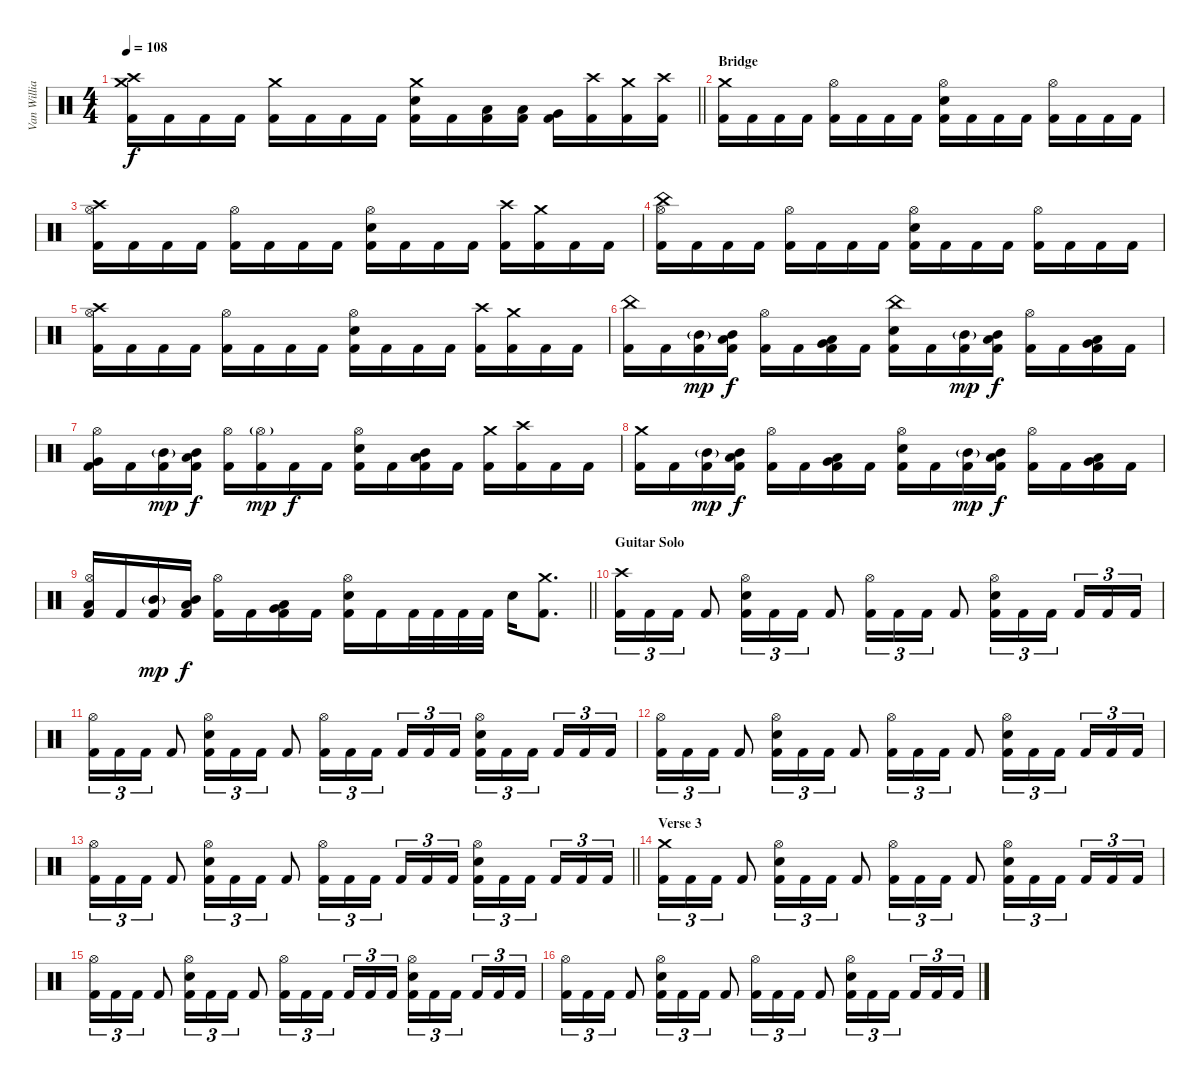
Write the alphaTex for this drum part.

\track ("Van Williams" "Van Willia") {instrument percussion}
\staff {score}
\articulation defaults
\ts (4 4)
\tempo 108
\clef neutral
\barLineRight lightlight
\ks c
("Crash high (hit)" "Crash medium (hit)" "Kick (hit) 2").16{dy f} "Kick (hit) 2".16 "Kick (hit) 2".16 "Kick (hit) 2".16 ("Crash medium (hit)" "Kick (hit) 2").16 "Kick (hit) 2".16 "Kick (hit) 2".16 "Kick (hit) 2".16 ("Crash medium (hit)" "Snare (hit) 2" "Kick (hit) 2").16 "Kick (hit) 2".16 ("Low Tom (hit)" "Kick (hit) 2").16 ("Low Tom (hit)" "Kick (hit) 2").16 ("Very Low Tom (hit)" "Kick (hit) 2").16 ("Crash high (hit)" "Kick (hit) 2").16 ("Crash medium (hit)" "Kick (hit) 2").16 ("Crash high (hit)" "Kick (hit) 2").16 |
\section ("" "Bridge")
("Crash medium (hit)" "Kick (hit) 2").16 "Kick (hit) 2".16 "Kick (hit) 2".16 "Kick (hit) 2".16 ("Hi-Hat (open)" "Kick (hit) 2").16 "Kick (hit) 2".16 "Kick (hit) 2".16 "Kick (hit) 2".16 ("Hi-Hat (open)" "Snare (hit) 2" "Kick (hit) 2").16 "Kick (hit) 2".16 "Kick (hit) 2".16 "Kick (hit) 2".16 ("Hi-Hat (open)" "Kick (hit) 2").16 "Kick (hit) 2".16 "Kick (hit) 2".16 "Kick (hit) 2".16 |
("Crash high (hit)" "Hi-Hat (open)" "Kick (hit) 2").16 "Kick (hit) 2".16 "Kick (hit) 2".16 "Kick (hit) 2".16 ("Hi-Hat (open)" "Kick (hit) 2").16 "Kick (hit) 2".16 "Kick (hit) 2".16 "Kick (hit) 2".16 ("Hi-Hat (open)" "Snare (hit) 2" "Kick (hit) 2").16 "Kick (hit) 2".16 "Kick (hit) 2".16 "Kick (hit) 2".16 ("Crash high (hit)" "Kick (hit) 2").16 ("Crash medium (hit)" "Kick (hit) 2").16 "Kick (hit) 2".16 "Kick (hit) 2".16 |
("China (hit)" "Hi-Hat (open)" "Kick (hit) 2").16 "Kick (hit) 2".16 "Kick (hit) 2".16 "Kick (hit) 2".16 ("Hi-Hat (open)" "Kick (hit) 2").16 "Kick (hit) 2".16 "Kick (hit) 2".16 "Kick (hit) 2".16 ("Hi-Hat (open)" "Snare (hit) 2" "Kick (hit) 2").16 "Kick (hit) 2".16 "Kick (hit) 2".16 "Kick (hit) 2".16 ("Hi-Hat (open)" "Kick (hit) 2").16 "Kick (hit) 2".16 "Kick (hit) 2".16 "Kick (hit) 2".16 |
("Crash high (hit)" "Hi-Hat (open)" "Kick (hit) 2").16 "Kick (hit) 2".16 "Kick (hit) 2".16 "Kick (hit) 2".16 ("Hi-Hat (open)" "Kick (hit) 2").16 "Kick (hit) 2".16 "Kick (hit) 2".16 "Kick (hit) 2".16 ("Hi-Hat (open)" "Snare (hit) 2" "Kick (hit) 2").16 "Kick (hit) 2".16 "Kick (hit) 2".16 "Kick (hit) 2".16 ("Crash high (hit)" "Kick (hit) 2").16 ("Crash medium (hit)" "Kick (hit) 2").16 "Kick (hit) 2".16 "Kick (hit) 2".16 |
("China (hit)" "Kick (hit) 2").16 "Kick (hit) 2".16 ("Mid Tom (hit)"{g} "Kick (hit) 2").16{dy mp} ("Mid Tom (hit)" "Low Tom (hit)" "Kick (hit) 2").16{dy f} ("Hi-Hat (open)" "Kick (hit) 2").16 "Kick (hit) 2".16 ("Low Tom (hit)" "Very Low Tom (hit)" "Kick (hit) 2").16 "Kick (hit) 2".16 ("China (hit)" "Snare (hit) 2" "Kick (hit) 2").16 "Kick (hit) 2".16 ("Mid Tom (hit)"{g} "Kick (hit) 2").16{dy mp} ("Mid Tom (hit)" "Low Tom (hit)" "Kick (hit) 2").16{dy f} ("Hi-Hat (open)" "Kick (hit) 2").16 "Kick (hit) 2".16 ("Low Tom (hit)" "Very Low Tom (hit)" "Kick (hit) 2").16 "Kick (hit) 2".16 |
("Hi-Hat (open)" "Very Low Tom (hit)" "Kick (hit) 2").16 "Kick (hit) 2".16 ("Mid Tom (hit)"{g} "Kick (hit) 2").16{dy mp} ("Mid Tom (hit)" "Low Tom (hit)" "Kick (hit) 2").16{dy f} ("Hi-Hat (open)" "Kick (hit) 2").16 ("Hi-Hat (open)"{g} "Kick (hit) 2").16{dy mp} "Kick (hit) 2".16{dy f} "Kick (hit) 2".16 ("Hi-Hat (open)" "Snare (hit) 2" "Kick (hit) 2").16 "Kick (hit) 2".16 ("Mid Tom (hit)" "Low Tom (hit)" "Kick (hit) 2").16 "Kick (hit) 2".16 ("Crash medium (hit)" "Kick (hit) 2").16 ("Crash high (hit)" "Kick (hit) 2").16 "Kick (hit) 2".16 "Kick (hit) 2".16 |
("Crash medium (hit)" "Kick (hit) 2").16 "Kick (hit) 2".16 ("Mid Tom (hit)"{g} "Kick (hit) 2").16{dy mp} ("Mid Tom (hit)" "Low Tom (hit)" "Kick (hit) 2").16{dy f} ("Hi-Hat (open)" "Kick (hit) 2").16 "Kick (hit) 2".16 ("Low Tom (hit)" "Very Low Tom (hit)" "Kick (hit) 2").16 "Kick (hit) 2".16 ("Hi-Hat (open)" "Snare (hit) 2" "Kick (hit) 2").16 "Kick (hit) 2".16 ("Mid Tom (hit)"{g} "Kick (hit) 2").16{dy mp} ("Mid Tom (hit)" "Low Tom (hit)" "Kick (hit) 2").16{dy f} ("Hi-Hat (open)" "Kick (hit) 2").16 "Kick (hit) 2".16 ("Low Tom (hit)" "Very Low Tom (hit)" "Kick (hit) 2").16 "Kick (hit) 2".16 |
\barLineRight lightlight
("Hi-Hat (open)" "Low Floor Tom (hit)" "Kick (hit) 2").16 "Kick (hit) 2".16 ("Mid Tom (hit)"{g} "Kick (hit) 2").16{dy mp} ("Mid Tom (hit)" "Low Tom (hit)" "Kick (hit) 2").16{dy f} ("Hi-Hat (open)" "Kick (hit) 2").16 "Kick (hit) 2".16 ("Low Tom (hit)" "Very Low Tom (hit)" "Kick (hit) 2").16 "Kick (hit) 2".16 ("Hi-Hat (open)" "Snare (hit) 2" "Kick (hit) 2").16 "Kick (hit) 2".16 "Kick (hit) 2".32 "Kick (hit) 2".32 "Kick (hit) 2".32 "Kick (hit) 2".32 "Snare (hit) 2".16 ("Crash medium (hit)" "Kick (hit) 2").8{d} |
\section ("" "Guitar Solo")
("Crash high (hit)" "Kick (hit) 2").16{tu (3 2)} "Kick (hit) 2".16{tu (3 2)} "Kick (hit) 2".16{tu (3 2)} "Kick (hit) 2".8 ("Hi-Hat (open)" "Snare (hit) 2" "Kick (hit) 2").16{tu (3 2)} "Kick (hit) 2".16{tu (3 2)} "Kick (hit) 2".16{tu (3 2)} "Kick (hit) 2".8 ("Hi-Hat (open)" "Kick (hit) 2").16{tu (3 2)} "Kick (hit) 2".16{tu (3 2)} "Kick (hit) 2".16{tu (3 2)} "Kick (hit) 2".8 ("Hi-Hat (open)" "Snare (hit) 2" "Kick (hit) 2").16{tu (3 2)} "Kick (hit) 2".16{tu (3 2)} "Kick (hit) 2".16{tu (3 2) beam splitsecondary} "Kick (hit) 2".16{tu (3 2)} "Kick (hit) 2".16{tu (3 2)} "Kick (hit) 2".16{tu (3 2)} |
("Hi-Hat (open)" "Kick (hit) 2").16{tu (3 2)} "Kick (hit) 2".16{tu (3 2)} "Kick (hit) 2".16{tu (3 2)} "Kick (hit) 2".8 ("Hi-Hat (open)" "Snare (hit) 2" "Kick (hit) 2").16{tu (3 2)} "Kick (hit) 2".16{tu (3 2)} "Kick (hit) 2".16{tu (3 2)} "Kick (hit) 2".8 ("Hi-Hat (open)" "Kick (hit) 2").16{tu (3 2)} "Kick (hit) 2".16{tu (3 2)} "Kick (hit) 2".16{tu (3 2) beam splitsecondary} "Kick (hit) 2".16{tu (3 2)} "Kick (hit) 2".16{tu (3 2)} "Kick (hit) 2".16{tu (3 2)} ("Hi-Hat (open)" "Snare (hit) 2" "Kick (hit) 2").16{tu (3 2)} "Kick (hit) 2".16{tu (3 2)} "Kick (hit) 2".16{tu (3 2) beam splitsecondary} "Kick (hit) 2".16{tu (3 2)} "Kick (hit) 2".16{tu (3 2)} "Kick (hit) 2".16{tu (3 2)} |
("Hi-Hat (open)" "Kick (hit) 2").16{tu (3 2)} "Kick (hit) 2".16{tu (3 2)} "Kick (hit) 2".16{tu (3 2)} "Kick (hit) 2".8 ("Hi-Hat (open)" "Snare (hit) 2" "Kick (hit) 2").16{tu (3 2)} "Kick (hit) 2".16{tu (3 2)} "Kick (hit) 2".16{tu (3 2)} "Kick (hit) 2".8 ("Hi-Hat (open)" "Kick (hit) 2").16{tu (3 2)} "Kick (hit) 2".16{tu (3 2)} "Kick (hit) 2".16{tu (3 2)} "Kick (hit) 2".8 ("Hi-Hat (open)" "Snare (hit) 2" "Kick (hit) 2").16{tu (3 2)} "Kick (hit) 2".16{tu (3 2)} "Kick (hit) 2".16{tu (3 2) beam splitsecondary} "Kick (hit) 2".16{tu (3 2)} "Kick (hit) 2".16{tu (3 2)} "Kick (hit) 2".16{tu (3 2)} |
\barLineRight lightlight
("Hi-Hat (open)" "Kick (hit) 2").16{tu (3 2)} "Kick (hit) 2".16{tu (3 2)} "Kick (hit) 2".16{tu (3 2)} "Kick (hit) 2".8 ("Hi-Hat (open)" "Snare (hit) 2" "Kick (hit) 2").16{tu (3 2)} "Kick (hit) 2".16{tu (3 2)} "Kick (hit) 2".16{tu (3 2)} "Kick (hit) 2".8 ("Hi-Hat (open)" "Kick (hit) 2").16{tu (3 2)} "Kick (hit) 2".16{tu (3 2)} "Kick (hit) 2".16{tu (3 2) beam splitsecondary} "Kick (hit) 2".16{tu (3 2)} "Kick (hit) 2".16{tu (3 2)} "Kick (hit) 2".16{tu (3 2)} ("Hi-Hat (open)" "Snare (hit) 2" "Kick (hit) 2").16{tu (3 2)} "Kick (hit) 2".16{tu (3 2)} "Kick (hit) 2".16{tu (3 2) beam splitsecondary} "Kick (hit) 2".16{tu (3 2)} "Kick (hit) 2".16{tu (3 2)} "Kick (hit) 2".16{tu (3 2)} |
\section ("" "Verse 3")
("Crash medium (hit)" "Kick (hit) 2").16{tu (3 2)} "Kick (hit) 2".16{tu (3 2)} "Kick (hit) 2".16{tu (3 2)} "Kick (hit) 2".8 ("Hi-Hat (open)" "Snare (hit) 2" "Kick (hit) 2").16{tu (3 2)} "Kick (hit) 2".16{tu (3 2)} "Kick (hit) 2".16{tu (3 2)} "Kick (hit) 2".8 ("Hi-Hat (open)" "Kick (hit) 2").16{tu (3 2)} "Kick (hit) 2".16{tu (3 2)} "Kick (hit) 2".16{tu (3 2)} "Kick (hit) 2".8 ("Hi-Hat (open)" "Snare (hit) 2" "Kick (hit) 2").16{tu (3 2)} "Kick (hit) 2".16{tu (3 2)} "Kick (hit) 2".16{tu (3 2) beam splitsecondary} "Kick (hit) 2".16{tu (3 2)} "Kick (hit) 2".16{tu (3 2)} "Kick (hit) 2".16{tu (3 2)} |
("Hi-Hat (open)" "Kick (hit) 2").16{tu (3 2)} "Kick (hit) 2".16{tu (3 2)} "Kick (hit) 2".16{tu (3 2)} "Kick (hit) 2".8 ("Hi-Hat (open)" "Snare (hit) 2" "Kick (hit) 2").16{tu (3 2)} "Kick (hit) 2".16{tu (3 2)} "Kick (hit) 2".16{tu (3 2)} "Kick (hit) 2".8 ("Hi-Hat (open)" "Kick (hit) 2").16{tu (3 2)} "Kick (hit) 2".16{tu (3 2)} "Kick (hit) 2".16{tu (3 2) beam splitsecondary} "Kick (hit) 2".16{tu (3 2)} "Kick (hit) 2".16{tu (3 2)} "Kick (hit) 2".16{tu (3 2)} ("Hi-Hat (open)" "Snare (hit) 2" "Kick (hit) 2").16{tu (3 2)} "Kick (hit) 2".16{tu (3 2)} "Kick (hit) 2".16{tu (3 2) beam splitsecondary} "Kick (hit) 2".16{tu (3 2)} "Kick (hit) 2".16{tu (3 2)} "Kick (hit) 2".16{tu (3 2)} |
("Hi-Hat (open)" "Kick (hit) 2").16{tu (3 2)} "Kick (hit) 2".16{tu (3 2)} "Kick (hit) 2".16{tu (3 2)} "Kick (hit) 2".8 ("Hi-Hat (open)" "Snare (hit) 2" "Kick (hit) 2").16{tu (3 2)} "Kick (hit) 2".16{tu (3 2)} "Kick (hit) 2".16{tu (3 2)} "Kick (hit) 2".8 ("Hi-Hat (open)" "Kick (hit) 2").16{tu (3 2)} "Kick (hit) 2".16{tu (3 2)} "Kick (hit) 2".16{tu (3 2)} "Kick (hit) 2".8 ("Hi-Hat (open)" "Snare (hit) 2" "Kick (hit) 2").16{tu (3 2)} "Kick (hit) 2".16{tu (3 2)} "Kick (hit) 2".16{tu (3 2) beam splitsecondary} "Kick (hit) 2".16{tu (3 2)} "Kick (hit) 2".16{tu (3 2)} "Kick (hit) 2".16{tu (3 2)}
